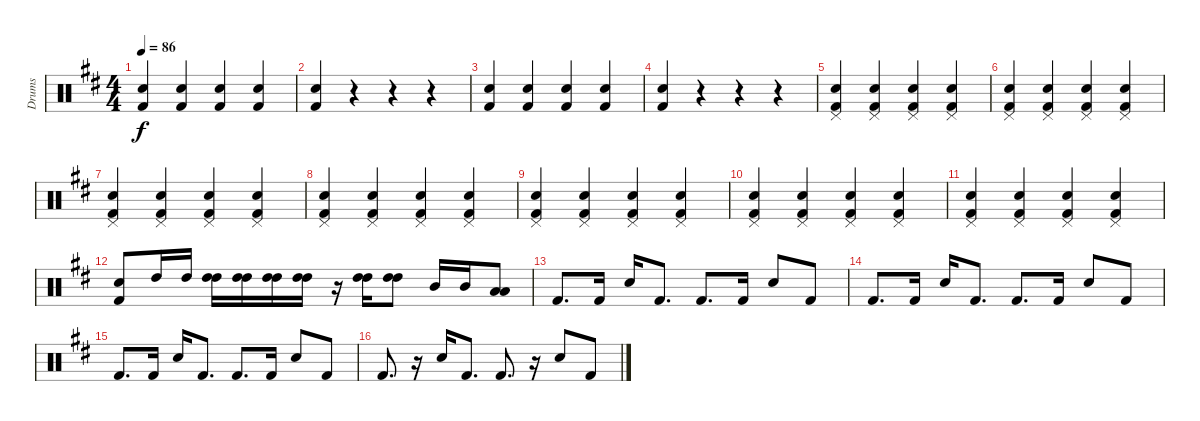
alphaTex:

\track ("Drums" "Drums") {instrument percussion}
\staff {score}
\articulation defaults
\ts (4 4)
\tempo 86
\clef neutral
\ks d
("Kick (hit) 2" "Hand Clap (hit)").4{dy f} ("Kick (hit) 2" "Hand Clap (hit)").4 ("Kick (hit) 2" "Hand Clap (hit)").4 ("Kick (hit) 2" "Hand Clap (hit)").4 |
("Kick (hit) 2" "Hand Clap (hit)").4 r.4 r.4 r.4 |
("Kick (hit) 2" "Hand Clap (hit)").4 ("Kick (hit) 2" "Hand Clap (hit)").4 ("Kick (hit) 2" "Hand Clap (hit)").4 ("Kick (hit) 2" "Hand Clap (hit)").4 |
("Kick (hit) 2" "Hand Clap (hit)").4 r.4 r.4 r.4 |
("Kick (hit) 2" "Hand Clap (hit)" "Pedal Hi-Hat (hit)").4 ("Kick (hit) 2" "Hand Clap (hit)" "Pedal Hi-Hat (hit)").4 ("Kick (hit) 2" "Hand Clap (hit)" "Pedal Hi-Hat (hit)").4 ("Kick (hit) 2" "Hand Clap (hit)" "Pedal Hi-Hat (hit)").4 |
("Kick (hit) 2" "Hand Clap (hit)" "Pedal Hi-Hat (hit)").4 ("Kick (hit) 2" "Hand Clap (hit)" "Pedal Hi-Hat (hit)").4 ("Kick (hit) 2" "Hand Clap (hit)" "Pedal Hi-Hat (hit)").4 ("Kick (hit) 2" "Hand Clap (hit)" "Pedal Hi-Hat (hit)").4 |
("Kick (hit) 2" "Hand Clap (hit)" "Pedal Hi-Hat (hit)").4 ("Kick (hit) 2" "Hand Clap (hit)" "Pedal Hi-Hat (hit)").4 ("Kick (hit) 2" "Hand Clap (hit)" "Pedal Hi-Hat (hit)").4 ("Kick (hit) 2" "Hand Clap (hit)" "Pedal Hi-Hat (hit)").4 |
("Kick (hit) 2" "Hand Clap (hit)" "Pedal Hi-Hat (hit)").4 ("Kick (hit) 2" "Hand Clap (hit)" "Pedal Hi-Hat (hit)").4 ("Kick (hit) 2" "Hand Clap (hit)" "Pedal Hi-Hat (hit)").4 ("Kick (hit) 2" "Hand Clap (hit)" "Pedal Hi-Hat (hit)").4 |
("Kick (hit) 2" "Hand Clap (hit)" "Pedal Hi-Hat (hit)").4 ("Kick (hit) 2" "Hand Clap (hit)" "Pedal Hi-Hat (hit)").4 ("Kick (hit) 2" "Hand Clap (hit)" "Pedal Hi-Hat (hit)").4 ("Kick (hit) 2" "Hand Clap (hit)" "Pedal Hi-Hat (hit)").4 |
("Kick (hit) 2" "Hand Clap (hit)" "Pedal Hi-Hat (hit)").4 ("Kick (hit) 2" "Hand Clap (hit)" "Pedal Hi-Hat (hit)").4 ("Kick (hit) 2" "Hand Clap (hit)" "Pedal Hi-Hat (hit)").4 ("Kick (hit) 2" "Hand Clap (hit)" "Pedal Hi-Hat (hit)").4 |
("Kick (hit) 2" "Hand Clap (hit)" "Pedal Hi-Hat (hit)").4 ("Kick (hit) 2" "Hand Clap (hit)" "Pedal Hi-Hat (hit)").4 ("Kick (hit) 2" "Hand Clap (hit)" "Pedal Hi-Hat (hit)").4 ("Kick (hit) 2" "Hand Clap (hit)" "Pedal Hi-Hat (hit)").4 |
("Kick (hit) 2" "Hand Clap (hit)").8 "High Tom (hit)".16 "High Tom (hit)".16 ("High Tom (hit)" "High Tom (hit)").16 ("High Tom (hit)" "High Tom (hit)").16 ("High Tom (hit)" "High Tom (hit)").16 ("High Tom (hit)" "High Tom (hit)").16 r.16 ("High Tom (hit)" "High Tom (hit)").16 ("High Tom (hit)" "High Tom (hit)").8 "Mid Tom (hit)".16 "Mid Tom (hit)".16 ("Low Tom (hit)" "Low Tom (hit)").8 |
"Kick (hit) 2".8{d} "Kick (hit) 2".16 "Electric Snare (hit)".16 "Kick (hit) 2".8{d} "Kick (hit) 2".8{d} "Kick (hit) 2".16 "Electric Snare (hit)".8 "Kick (hit) 2".8 |
"Kick (hit) 2".8{d} "Kick (hit) 2".16 "Electric Snare (hit)".16 "Kick (hit) 2".8{d} "Kick (hit) 2".8{d} "Kick (hit) 2".16 "Electric Snare (hit)".8 "Kick (hit) 2".8 |
"Kick (hit) 2".8{d} "Kick (hit) 2".16 "Electric Snare (hit)".16 "Kick (hit) 2".8{d} "Kick (hit) 2".8{d} "Kick (hit) 2".16 "Electric Snare (hit)".8 "Kick (hit) 2".8 |
"Kick (hit) 2".8{d} r.16 "Electric Snare (hit)".16 "Kick (hit) 2".8{d} "Kick (hit) 2".8{d} r.16 "Electric Snare (hit)".8 "Kick (hit) 2".8
